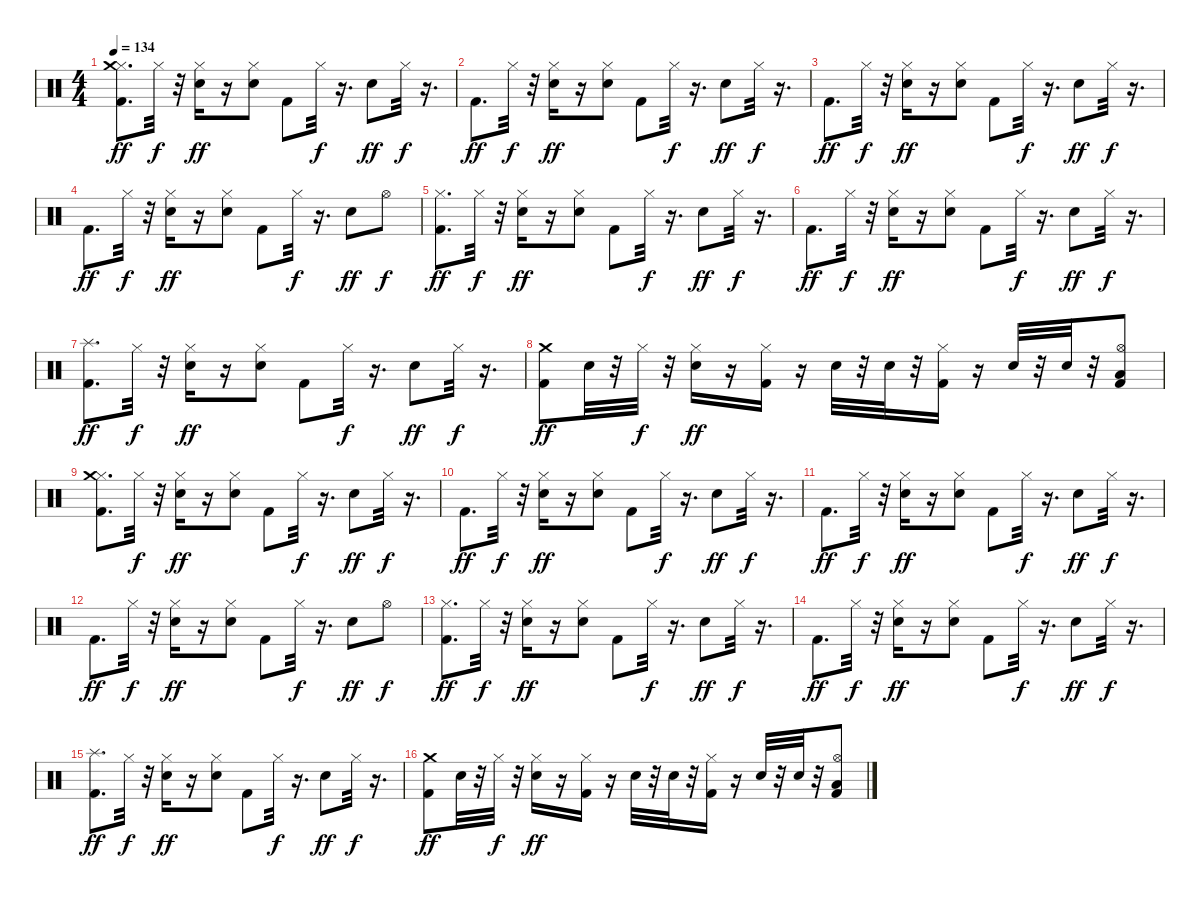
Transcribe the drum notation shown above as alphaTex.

\track "" {instrument percussion}
\staff {score}
\articulation defaults
\ts (4 4)
\tempo 134
\clef neutral
\ks c
("Hi-Hat (closed)" "Kick (hit) 2" "Crash medium (hit)").8{d dy ff} "Hi-Hat (closed)".32{dy f} r.32 ("Hi-Hat (closed)" "Snare (hit) 2").16{dy ff} r.16 ("Snare (hit) 2" "Hi-Hat (closed)").8 "Kick (hit) 2".8 "Hi-Hat (closed)".32{dy f} r.16{d} "Snare (hit) 2".8{dy ff} "Hi-Hat (closed)".32{dy f} r.16{d} |
"Kick (hit) 2".8{d dy ff} "Hi-Hat (closed)".32{dy f} r.32 ("Hi-Hat (closed)" "Snare (hit) 2").16{dy ff} r.16 ("Snare (hit) 2" "Hi-Hat (closed)").8 "Kick (hit) 2".8 "Hi-Hat (closed)".32{dy f} r.16{d} "Snare (hit) 2".8{dy ff} "Hi-Hat (closed)".32{dy f} r.16{d} |
"Kick (hit) 2".8{d dy ff} "Hi-Hat (closed)".32{dy f} r.32 ("Snare (hit) 2" "Hi-Hat (closed)").16{dy ff} r.16 ("Hi-Hat (closed)" "Snare (hit) 2").8 "Kick (hit) 2".8 "Hi-Hat (closed)".32{dy f} r.16{d} "Snare (hit) 2".8{dy ff} "Hi-Hat (closed)".32{dy f} r.16{d} |
"Kick (hit) 2".8{d dy ff} "Hi-Hat (closed)".32{dy f} r.32 ("Hi-Hat (closed)" "Snare (hit) 2").16{dy ff} r.16 ("Hi-Hat (closed)" "Snare (hit) 2").8 "Kick (hit) 2".8 "Hi-Hat (closed)".32{dy f} r.16{d} "Snare (hit) 2".8{dy ff} "Hi-Hat (open)".8{dy f} |
("Hi-Hat (closed)" "Kick (hit) 2").8{d dy ff} "Hi-Hat (closed)".32{dy f} r.32 ("Hi-Hat (closed)" "Snare (hit) 2").16{dy ff} r.16 ("Hi-Hat (closed)" "Snare (hit) 2").8 "Kick (hit) 2".8 "Hi-Hat (closed)".32{dy f} r.16{d} "Snare (hit) 2".8{dy ff} "Hi-Hat (closed)".32{dy f} r.16{d} |
"Kick (hit) 2".8{d dy ff} "Hi-Hat (closed)".32{dy f} r.32 ("Snare (hit) 2" "Hi-Hat (closed)").16{dy ff} r.16 ("Snare (hit) 2" "Hi-Hat (closed)").8 "Kick (hit) 2".8 "Hi-Hat (closed)".32{dy f} r.16{d} "Snare (hit) 2".8{dy ff} "Hi-Hat (closed)".32{dy f} r.16{d} |
("Splash (hit)" "Kick (hit) 2").8{d dy ff} "Hi-Hat (closed)".32{dy f} r.32 ("Snare (hit) 2" "Hi-Hat (closed)").16{dy ff} r.16 ("Hi-Hat (closed)" "Snare (hit) 2").8 "Kick (hit) 2".8 "Hi-Hat (closed)".32{dy f} r.16{d} "Snare (hit) 2".8{dy ff} "Hi-Hat (closed)".32{dy f} r.16{d} |
("Kick (hit) 2" "Crash medium (hit)").8{dy ff} "Snare (hit) 2".32 r.32 "Hi-Hat (closed)".32{dy f} r.32 ("Snare (hit) 2" "Hi-Hat (closed)").16{dy ff} r.16 ("Kick (hit) 2" "Hi-Hat (closed)").16 r.16 "Snare (hit) 2".32 r.32 "Snare (hit) 2".32 r.32 ("Hi-Hat (closed)" "Kick (hit) 2").16 r.16 "Snare (hit) 2".32 r.32 "Snare (hit) 2".32 r.32 ("Hi-Hat (open)" "Low Tom (hit)" "Kick (hit) 2").8 |
("Hi-Hat (closed)" "Kick (hit) 2" "Crash medium (hit)").8{d} "Hi-Hat (closed)".32{dy f} r.32 ("Hi-Hat (closed)" "Snare (hit) 2").16{dy ff} r.16 ("Snare (hit) 2" "Hi-Hat (closed)").8 "Kick (hit) 2".8 "Hi-Hat (closed)".32{dy f} r.16{d} "Snare (hit) 2".8{dy ff} "Hi-Hat (closed)".32{dy f} r.16{d} |
"Kick (hit) 2".8{d dy ff} "Hi-Hat (closed)".32{dy f} r.32 ("Hi-Hat (closed)" "Snare (hit) 2").16{dy ff} r.16 ("Snare (hit) 2" "Hi-Hat (closed)").8 "Kick (hit) 2".8 "Hi-Hat (closed)".32{dy f} r.16{d} "Snare (hit) 2".8{dy ff} "Hi-Hat (closed)".32{dy f} r.16{d} |
"Kick (hit) 2".8{d dy ff} "Hi-Hat (closed)".32{dy f} r.32 ("Hi-Hat (closed)" "Snare (hit) 2").16{dy ff} r.16 ("Hi-Hat (closed)" "Snare (hit) 2").8 "Kick (hit) 2".8 "Hi-Hat (closed)".32{dy f} r.16{d} "Snare (hit) 2".8{dy ff} "Hi-Hat (closed)".32{dy f} r.16{d} |
"Kick (hit) 2".8{d dy ff} "Hi-Hat (closed)".32{dy f} r.32 ("Snare (hit) 2" "Hi-Hat (closed)").16{dy ff} r.16 ("Hi-Hat (closed)" "Snare (hit) 2").8 "Kick (hit) 2".8 "Hi-Hat (closed)".32{dy f} r.16{d} "Snare (hit) 2".8{dy ff} "Hi-Hat (open)".8{dy f} |
("Hi-Hat (closed)" "Kick (hit) 2").8{d dy ff} "Hi-Hat (closed)".32{dy f} r.32 ("Snare (hit) 2" "Hi-Hat (closed)").16{dy ff} r.16 ("Snare (hit) 2" "Hi-Hat (closed)").8 "Kick (hit) 2".8 "Hi-Hat (closed)".32{dy f} r.16{d} "Snare (hit) 2".8{dy ff} "Hi-Hat (closed)".32{dy f} r.16{d} |
"Kick (hit) 2".8{d dy ff} "Hi-Hat (closed)".32{dy f} r.32 ("Hi-Hat (closed)" "Snare (hit) 2").16{dy ff} r.16 ("Hi-Hat (closed)" "Snare (hit) 2").8 "Kick (hit) 2".8 "Hi-Hat (closed)".32{dy f} r.16{d} "Snare (hit) 2".8{dy ff} "Hi-Hat (closed)".32{dy f} r.16{d} |
("Splash (hit)" "Kick (hit) 2").8{d dy ff} "Hi-Hat (closed)".32{dy f} r.32 ("Hi-Hat (closed)" "Snare (hit) 2").16{dy ff} r.16 ("Snare (hit) 2" "Hi-Hat (closed)").8 "Kick (hit) 2".8 "Hi-Hat (closed)".32{dy f} r.16{d} "Snare (hit) 2".8{dy ff} "Hi-Hat (closed)".32{dy f} r.16{d} |
("Kick (hit) 2" "Crash medium (hit)").8{dy ff} "Snare (hit) 2".32 r.32 "Hi-Hat (closed)".32{dy f} r.32 ("Snare (hit) 2" "Hi-Hat (closed)").16{dy ff} r.16 ("Kick (hit) 2" "Hi-Hat (closed)").16 r.16 "Snare (hit) 2".32 r.32 "Snare (hit) 2".32 r.32 ("Kick (hit) 2" "Hi-Hat (closed)").16 r.16 "Snare (hit) 2".32 r.32 "Snare (hit) 2".32 r.32 ("Hi-Hat (open)" "Low Tom (hit)" "Kick (hit) 2").8
